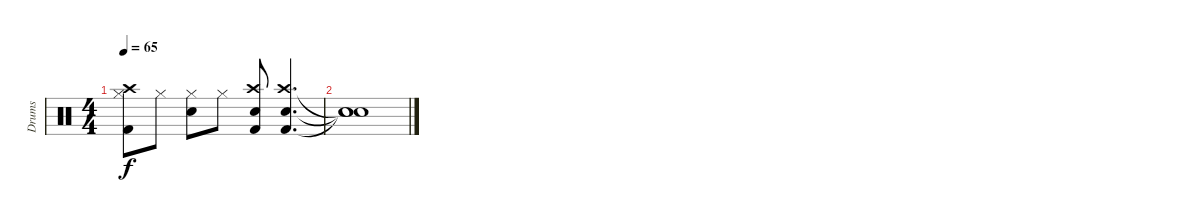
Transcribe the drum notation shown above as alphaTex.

\track ("Drums" "Drums") {instrument percussion}
\staff {score}
\articulation defaults
\ts (4 4)
\tempo 65
\clef neutral
\ks c
("Hi-Hat (closed)" "Kick (hit) 2" "Crash high (hit)").8{dy f} "Hi-Hat (closed)".8 ("Hi-Hat (closed)" "Electric Snare (hit)").8 "Hi-Hat (closed)".8 ("Electric Snare (hit)" "Kick (hit) 2" "Crash high (hit)").8 ("Electric Snare (hit)" "Kick (hit) 2" "Crash high (hit)").4{d} |
("Snare (hit)"{t} "Snare (hit)"{t} "Snare (hit)"{t}).1
